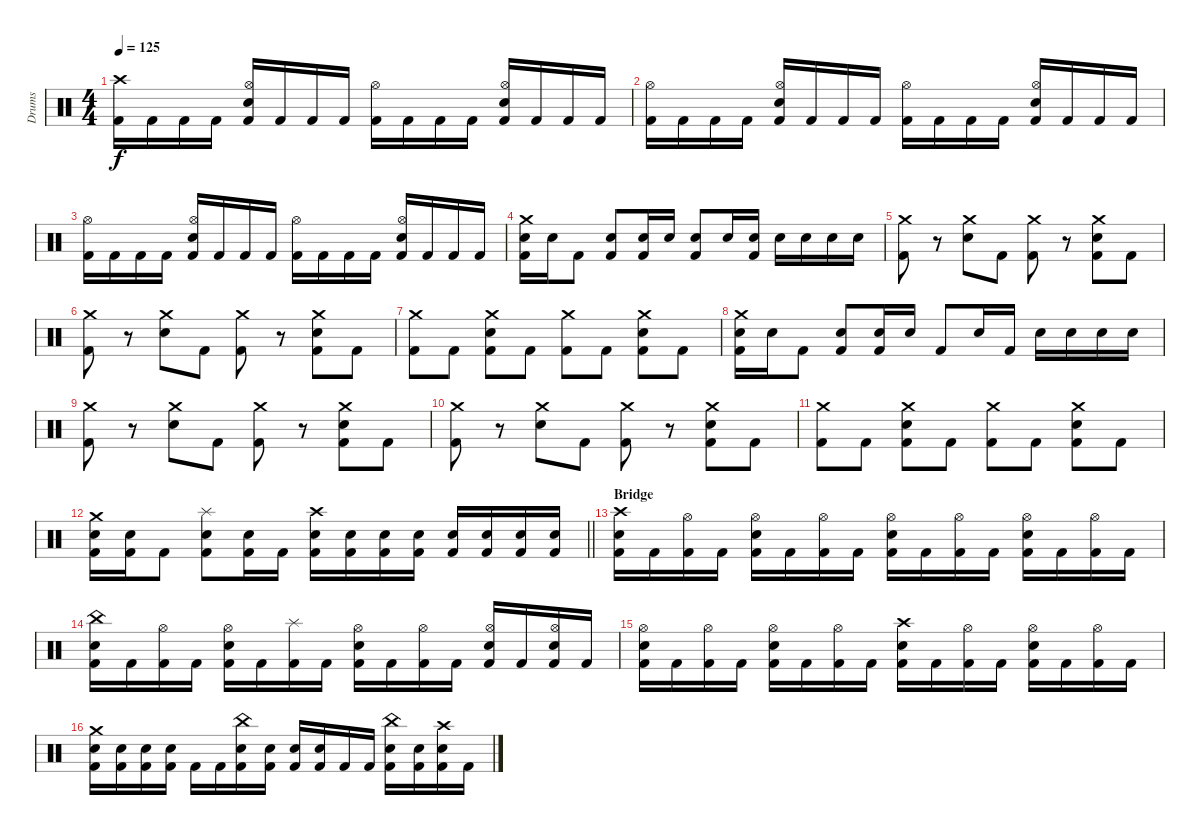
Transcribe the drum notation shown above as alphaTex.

\track ("Drums" "Drums") {instrument percussion}
\staff {score}
\articulation defaults
\ts (4 4)
\tempo 125
\clef neutral
\ks c
("Crash high (hit)" "Kick (hit) 2").16{dy f} "Kick (hit) 2".16 "Kick (hit) 2".16 "Kick (hit) 2".16 ("Hi-Hat (open)" "Electric Snare (hit)" "Kick (hit) 2").16 "Kick (hit) 2".16 "Kick (hit) 2".16 "Kick (hit) 2".16 ("Hi-Hat (open)" "Kick (hit) 2").16 "Kick (hit) 2".16 "Kick (hit) 2".16 "Kick (hit) 2".16 ("Hi-Hat (open)" "Electric Snare (hit)" "Kick (hit) 2").16 "Kick (hit) 2".16 "Kick (hit) 2".16 "Kick (hit) 2".16 |
("Hi-Hat (open)" "Kick (hit) 2").16 "Kick (hit) 2".16 "Kick (hit) 2".16 "Kick (hit) 2".16 ("Hi-Hat (open)" "Electric Snare (hit)" "Kick (hit) 2").16 "Kick (hit) 2".16 "Kick (hit) 2".16 "Kick (hit) 2".16 ("Hi-Hat (open)" "Kick (hit) 2").16 "Kick (hit) 2".16 "Kick (hit) 2".16 "Kick (hit) 2".16 ("Hi-Hat (open)" "Electric Snare (hit)" "Kick (hit) 2").16 "Kick (hit) 2".16 "Kick (hit) 2".16 "Kick (hit) 2".16 |
("Hi-Hat (open)" "Kick (hit) 2").16 "Kick (hit) 2".16 "Kick (hit) 2".16 "Kick (hit) 2".16 ("Hi-Hat (open)" "Electric Snare (hit)" "Kick (hit) 2").16 "Kick (hit) 2".16 "Kick (hit) 2".16 "Kick (hit) 2".16 ("Hi-Hat (open)" "Kick (hit) 2").16 "Kick (hit) 2".16 "Kick (hit) 2".16 "Kick (hit) 2".16 ("Hi-Hat (open)" "Electric Snare (hit)" "Kick (hit) 2").16 "Kick (hit) 2".16 "Kick (hit) 2".16 "Kick (hit) 2".16 |
("Crash medium (hit)" "Electric Snare (hit)" "Kick (hit) 2").16 "Electric Snare (hit)".16 "Kick (hit) 2".8 ("Electric Snare (hit)" "Kick (hit) 2").8 ("Electric Snare (hit)" "Kick (hit) 2").16 "Electric Snare (hit)".16 ("Electric Snare (hit)" "Kick (hit) 2").8 "Electric Snare (hit)".16 ("Electric Snare (hit)" "Kick (hit) 2").16 "Electric Snare (hit)".16 "Electric Snare (hit)".16 "Electric Snare (hit)".16 "Electric Snare (hit)".16 |
("Crash medium (hit)" "Kick (hit) 2").8 r.8 ("Crash medium (hit)" "Electric Snare (hit)").8 "Kick (hit) 2".8 ("Crash medium (hit)" "Kick (hit) 2").8 r.8 ("Crash medium (hit)" "Electric Snare (hit)" "Kick (hit) 2").8 "Kick (hit) 2".8 |
("Crash medium (hit)" "Kick (hit) 2").8 r.8 ("Crash medium (hit)" "Electric Snare (hit)").8 "Kick (hit) 2".8 ("Crash medium (hit)" "Kick (hit) 2").8 r.8 ("Crash medium (hit)" "Electric Snare (hit)" "Kick (hit) 2").8 "Kick (hit) 2".8 |
("Crash medium (hit)" "Kick (hit) 2").8 "Kick (hit) 2".8 ("Crash medium (hit)" "Electric Snare (hit)" "Kick (hit) 2").8 "Kick (hit) 2".8 ("Crash medium (hit)" "Kick (hit) 2").8 "Kick (hit) 2".8 ("Crash medium (hit)" "Electric Snare (hit)" "Kick (hit) 2").8 "Kick (hit) 2".8 |
("Crash medium (hit)" "Electric Snare (hit)" "Kick (hit) 2").16 "Electric Snare (hit)".16 "Kick (hit) 2".8 ("Electric Snare (hit)" "Kick (hit) 2").8 ("Electric Snare (hit)" "Kick (hit) 2").16 "Electric Snare (hit)".16 "Kick (hit) 2".8 "Electric Snare (hit)".16 "Kick (hit) 2".16 "Electric Snare (hit)".16 "Electric Snare (hit)".16 "Electric Snare (hit)".16 "Electric Snare (hit)".16 |
("Crash medium (hit)" "Kick (hit) 2").8 r.8 ("Crash medium (hit)" "Electric Snare (hit)").8 "Kick (hit) 2".8 ("Crash medium (hit)" "Kick (hit) 2").8 r.8 ("Crash medium (hit)" "Electric Snare (hit)" "Kick (hit) 2").8 "Kick (hit) 2".8 |
("Crash medium (hit)" "Kick (hit) 2").8 r.8 ("Crash medium (hit)" "Electric Snare (hit)").8 "Kick (hit) 2".8 ("Crash medium (hit)" "Kick (hit) 2").8 r.8 ("Crash medium (hit)" "Electric Snare (hit)" "Kick (hit) 2").8 "Kick (hit) 2".8 |
("Crash medium (hit)" "Kick (hit) 2").8 "Kick (hit) 2".8 ("Crash medium (hit)" "Electric Snare (hit)" "Kick (hit) 2").8 "Kick (hit) 2".8 ("Crash medium (hit)" "Kick (hit) 2").8 "Kick (hit) 2".8 ("Crash medium (hit)" "Electric Snare (hit)" "Kick (hit) 2").8 "Kick (hit) 2".8 |
\barLineRight lightlight
("Crash medium (hit)" "Electric Snare (hit)" "Kick (hit) 2").16 ("Electric Snare (hit)" "Kick (hit) 2").16 "Kick (hit) 2".8 ("Splash (hit)" "Electric Snare (hit)" "Kick (hit) 2").8 ("Electric Snare (hit)" "Kick (hit) 2").16 "Kick (hit) 2".16 ("Crash high (hit)" "Electric Snare (hit)" "Kick (hit) 2").16 ("Electric Snare (hit)" "Kick (hit) 2").16 ("Electric Snare (hit)" "Kick (hit) 2").16 ("Electric Snare (hit)" "Kick (hit) 2").16 ("Electric Snare (hit)" "Kick (hit) 2").16 ("Electric Snare (hit)" "Kick (hit) 2").16 ("Electric Snare (hit)" "Kick (hit) 2").16 ("Electric Snare (hit)" "Kick (hit) 2").16 |
\section ("" "Bridge")
("Crash high (hit)" "Electric Snare (hit)" "Kick (hit) 2").16 "Kick (hit) 2".16 ("Hi-Hat (open)" "Kick (hit) 2").16 "Kick (hit) 2".16 ("Hi-Hat (open)" "Electric Snare (hit)" "Kick (hit) 2").16 "Kick (hit) 2".16 ("Hi-Hat (open)" "Kick (hit) 2").16 "Kick (hit) 2".16 ("Hi-Hat (open)" "Electric Snare (hit)" "Kick (hit) 2").16 "Kick (hit) 2".16 ("Hi-Hat (open)" "Kick (hit) 2").16 "Kick (hit) 2".16 ("Hi-Hat (open)" "Electric Snare (hit)" "Kick (hit) 2").16 "Kick (hit) 2".16 ("Hi-Hat (open)" "Kick (hit) 2").16 "Kick (hit) 2".16 |
("China (hit)" "Electric Snare (hit)" "Kick (hit) 2").16 "Kick (hit) 2".16 ("Hi-Hat (open)" "Kick (hit) 2").16 "Kick (hit) 2".16 ("Hi-Hat (open)" "Electric Snare (hit)" "Kick (hit) 2").16 "Kick (hit) 2".16 ("Splash (hit)" "Kick (hit) 2").16 "Kick (hit) 2".16 ("Hi-Hat (open)" "Electric Snare (hit)" "Kick (hit) 2").16 "Kick (hit) 2".16 ("Hi-Hat (open)" "Kick (hit) 2").16 "Kick (hit) 2".16 ("Hi-Hat (open)" "Electric Snare (hit)" "Kick (hit) 2").16 "Kick (hit) 2".16 ("Hi-Hat (open)" "Electric Snare (hit)" "Kick (hit) 2").16 "Kick (hit) 2".16 |
("Hi-Hat (open)" "Electric Snare (hit)" "Kick (hit) 2").16 "Kick (hit) 2".16 ("Hi-Hat (open)" "Kick (hit) 2").16 "Kick (hit) 2".16 ("Hi-Hat (open)" "Electric Snare (hit)" "Kick (hit) 2").16 "Kick (hit) 2".16 ("Hi-Hat (open)" "Kick (hit) 2").16 "Kick (hit) 2".16 ("Crash high (hit)" "Electric Snare (hit)" "Kick (hit) 2").16 "Kick (hit) 2".16 ("Hi-Hat (open)" "Kick (hit) 2").16 "Kick (hit) 2".16 ("Hi-Hat (open)" "Electric Snare (hit)" "Kick (hit) 2").16 "Kick (hit) 2".16 ("Hi-Hat (open)" "Kick (hit) 2").16 "Kick (hit) 2".16 |
("Crash medium (hit)" "Electric Snare (hit)" "Kick (hit) 2").16 ("Electric Snare (hit)" "Kick (hit) 2").16 ("Electric Snare (hit)" "Kick (hit) 2").16 ("Electric Snare (hit)" "Kick (hit) 2").16 "Kick (hit) 2".16 "Kick (hit) 2".16 ("China (hit)" "Electric Snare (hit)" "Kick (hit) 2").16 ("Electric Snare (hit)" "Kick (hit) 2").16 ("Electric Snare (hit)" "Kick (hit) 2").16 ("Electric Snare (hit)" "Kick (hit) 2").16 "Kick (hit) 2".16 "Kick (hit) 2".16 ("China (hit)" "Electric Snare (hit)" "Kick (hit) 2").16 ("Electric Snare (hit)" "Kick (hit) 2").16 ("Crash high (hit)" "Electric Snare (hit)" "Kick (hit) 2").16 "Kick (hit) 2".16
